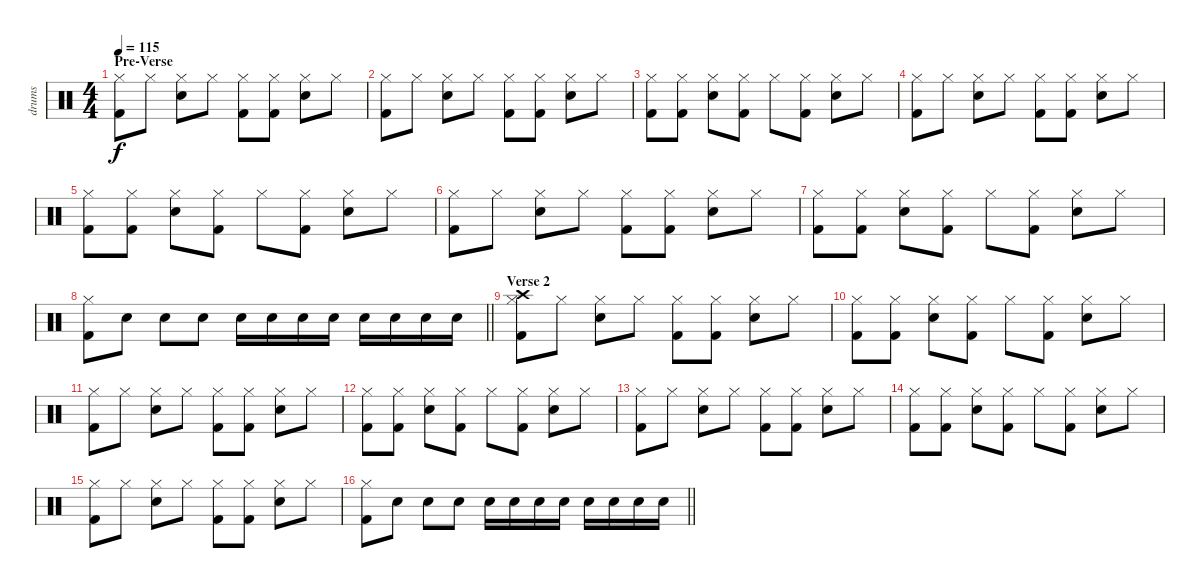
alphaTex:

\track ("drums" "drums") {instrument percussion}
\staff {score}
\articulation defaults
\ts (4 4)
\section ("" "Pre-Verse")
\tempo 115
\clef neutral
\ks c
("Hi-Hat (closed)" "Kick (hit) 2").8{dy f} "Hi-Hat (closed)".8 ("Hi-Hat (closed)" "Electric Snare (hit)").8 "Hi-Hat (closed)".8 ("Hi-Hat (closed)" "Kick (hit) 2").8 ("Hi-Hat (closed)" "Kick (hit) 2").8 ("Hi-Hat (closed)" "Electric Snare (hit)").8 "Hi-Hat (closed)".8 |
("Hi-Hat (closed)" "Kick (hit) 2").8 "Hi-Hat (closed)".8 ("Hi-Hat (closed)" "Electric Snare (hit)").8 "Hi-Hat (closed)".8 ("Hi-Hat (closed)" "Kick (hit) 2").8 ("Hi-Hat (closed)" "Kick (hit) 2").8 ("Hi-Hat (closed)" "Electric Snare (hit)").8 "Hi-Hat (closed)".8 |
("Hi-Hat (closed)" "Kick (hit) 2").8 ("Hi-Hat (closed)" "Kick (hit) 2").8 ("Hi-Hat (closed)" "Electric Snare (hit)").8 ("Hi-Hat (closed)" "Kick (hit) 2").8 "Hi-Hat (closed)".8 ("Hi-Hat (closed)" "Kick (hit) 2").8 ("Hi-Hat (closed)" "Electric Snare (hit)").8 "Hi-Hat (closed)".8 |
("Hi-Hat (closed)" "Kick (hit) 2").8 "Hi-Hat (closed)".8 ("Hi-Hat (closed)" "Electric Snare (hit)").8 "Hi-Hat (closed)".8 ("Hi-Hat (closed)" "Kick (hit) 2").8 ("Hi-Hat (closed)" "Kick (hit) 2").8 ("Hi-Hat (closed)" "Electric Snare (hit)").8 "Hi-Hat (closed)".8 |
("Hi-Hat (closed)" "Kick (hit) 2").8 ("Hi-Hat (closed)" "Kick (hit) 2").8 ("Hi-Hat (closed)" "Electric Snare (hit)").8 ("Hi-Hat (closed)" "Kick (hit) 2").8 "Hi-Hat (closed)".8 ("Hi-Hat (closed)" "Kick (hit) 2").8 ("Hi-Hat (closed)" "Electric Snare (hit)").8 "Hi-Hat (closed)".8 |
("Hi-Hat (closed)" "Kick (hit) 2").8 "Hi-Hat (closed)".8 ("Hi-Hat (closed)" "Electric Snare (hit)").8 "Hi-Hat (closed)".8 ("Hi-Hat (closed)" "Kick (hit) 2").8 ("Hi-Hat (closed)" "Kick (hit) 2").8 ("Hi-Hat (closed)" "Electric Snare (hit)").8 "Hi-Hat (closed)".8 |
("Hi-Hat (closed)" "Kick (hit) 2").8 ("Hi-Hat (closed)" "Kick (hit) 2").8 ("Hi-Hat (closed)" "Electric Snare (hit)").8 ("Hi-Hat (closed)" "Kick (hit) 2").8 "Hi-Hat (closed)".8 ("Hi-Hat (closed)" "Kick (hit) 2").8 ("Hi-Hat (closed)" "Electric Snare (hit)").8 "Hi-Hat (closed)".8 |
\barLineRight lightlight
("Hi-Hat (closed)" "Kick (hit) 2").8 "Electric Snare (hit)".8 "Electric Snare (hit)".8 "Electric Snare (hit)".8 "Electric Snare (hit)".16 "Electric Snare (hit)".16 "Electric Snare (hit)".16 "Electric Snare (hit)".16 "Electric Snare (hit)".16 "Electric Snare (hit)".16 "Electric Snare (hit)".16 "Electric Snare (hit)".16 |
\section ("" "Verse 2")
("Hi-Hat (closed)" "Crash high (hit)" "Kick (hit) 2").8 "Hi-Hat (closed)".8 ("Hi-Hat (closed)" "Electric Snare (hit)").8 "Hi-Hat (closed)".8 ("Hi-Hat (closed)" "Kick (hit) 2").8 ("Hi-Hat (closed)" "Kick (hit) 2").8 ("Hi-Hat (closed)" "Electric Snare (hit)").8 "Hi-Hat (closed)".8 |
("Hi-Hat (closed)" "Kick (hit) 2").8 ("Hi-Hat (closed)" "Kick (hit) 2").8 ("Hi-Hat (closed)" "Electric Snare (hit)").8 ("Hi-Hat (closed)" "Kick (hit) 2").8 "Hi-Hat (closed)".8 ("Hi-Hat (closed)" "Kick (hit) 2").8 ("Hi-Hat (closed)" "Electric Snare (hit)").8 "Hi-Hat (closed)".8 |
("Hi-Hat (closed)" "Kick (hit) 2").8 "Hi-Hat (closed)".8 ("Hi-Hat (closed)" "Electric Snare (hit)").8 "Hi-Hat (closed)".8 ("Hi-Hat (closed)" "Kick (hit) 2").8 ("Hi-Hat (closed)" "Kick (hit) 2").8 ("Hi-Hat (closed)" "Electric Snare (hit)").8 "Hi-Hat (closed)".8 |
("Hi-Hat (closed)" "Kick (hit) 2").8 ("Hi-Hat (closed)" "Kick (hit) 2").8 ("Hi-Hat (closed)" "Electric Snare (hit)").8 ("Hi-Hat (closed)" "Kick (hit) 2").8 "Hi-Hat (closed)".8 ("Hi-Hat (closed)" "Kick (hit) 2").8 ("Hi-Hat (closed)" "Electric Snare (hit)").8 "Hi-Hat (closed)".8 |
("Hi-Hat (closed)" "Kick (hit) 2").8 "Hi-Hat (closed)".8 ("Hi-Hat (closed)" "Electric Snare (hit)").8 "Hi-Hat (closed)".8 ("Hi-Hat (closed)" "Kick (hit) 2").8 ("Hi-Hat (closed)" "Kick (hit) 2").8 ("Hi-Hat (closed)" "Electric Snare (hit)").8 "Hi-Hat (closed)".8 |
("Hi-Hat (closed)" "Kick (hit) 2").8 ("Hi-Hat (closed)" "Kick (hit) 2").8 ("Hi-Hat (closed)" "Electric Snare (hit)").8 ("Hi-Hat (closed)" "Kick (hit) 2").8 "Hi-Hat (closed)".8 ("Hi-Hat (closed)" "Kick (hit) 2").8 ("Hi-Hat (closed)" "Electric Snare (hit)").8 "Hi-Hat (closed)".8 |
("Hi-Hat (closed)" "Kick (hit) 2").8 "Hi-Hat (closed)".8 ("Hi-Hat (closed)" "Electric Snare (hit)").8 "Hi-Hat (closed)".8 ("Hi-Hat (closed)" "Kick (hit) 2").8 ("Hi-Hat (closed)" "Kick (hit) 2").8 ("Hi-Hat (closed)" "Electric Snare (hit)").8 "Hi-Hat (closed)".8 |
\barLineRight lightlight
("Hi-Hat (closed)" "Kick (hit) 2").8 "Electric Snare (hit)".8 "Electric Snare (hit)".8 "Electric Snare (hit)".8 "Electric Snare (hit)".16 "Electric Snare (hit)".16 "Electric Snare (hit)".16 "Electric Snare (hit)".16 "Electric Snare (hit)".16 "Electric Snare (hit)".16 "Electric Snare (hit)".16 "Electric Snare (hit)".16
